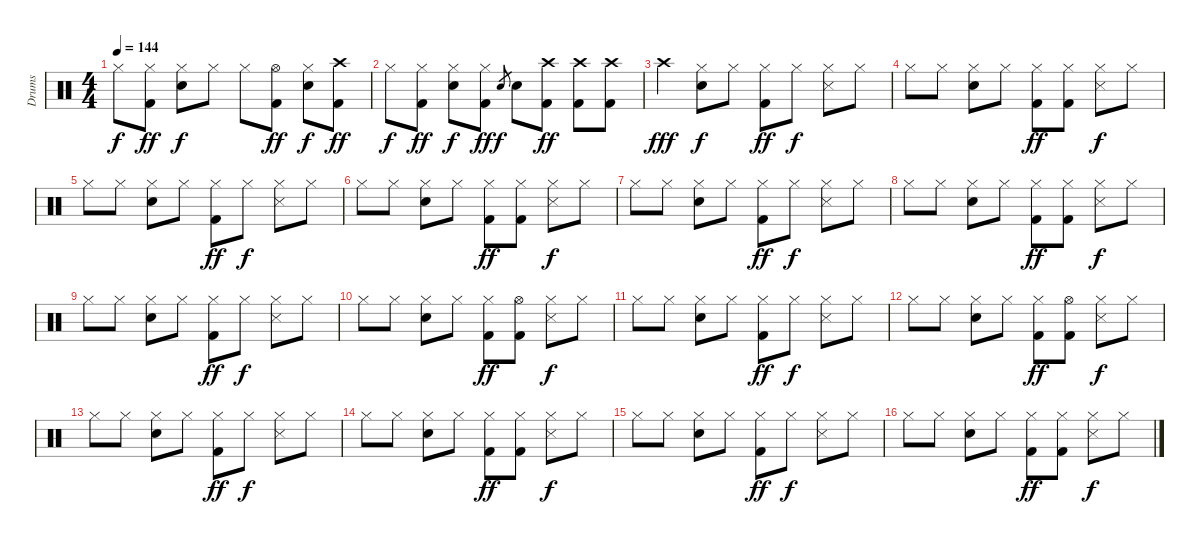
\track ("Drums" "Drums") {instrument percussion}
\staff {score}
\articulation defaults
\ts (4 4)
\tempo 144
\clef neutral
\ks c "Hi-Hat (closed)".8{dy f}
("Hi-Hat (closed)" "Kick (hit) 2").8{dy ff} ("Hi-Hat (closed)" "Snare (hit) 2").8{dy f} "Hi-Hat (closed)".8 "Hi-Hat (closed)".8 ("Hi-Hat (open)" "Kick (hit) 2").8{dy ff} ("Hi-Hat (closed)" "Snare (hit) 2").8{dy f} ("Crash high (hit)" "Kick (hit) 2").8{dy ff} |
"Hi-Hat (closed)".8{dy f} ("Hi-Hat (closed)" "Kick (hit) 2").8{dy ff} ("Hi-Hat (closed)" "Snare (hit) 2").8{dy f} ("Hi-Hat (closed)" "Kick (hit) 2").8{dy ff} "Snare (hit) 2".8{gr dy f} "Snare (hit) 2".8 ("Crash high (hit)" "Kick (hit) 2").8{dy ff} ("Crash high (hit)" "Kick (hit) 2").8 ("Crash high (hit)" "Kick (hit) 2").8 |
"Crash high (hit)".4{dy fff} ("Hi-Hat (closed)" "Snare (hit) 2").8{dy f} "Hi-Hat (closed)".8 ("Hi-Hat (closed)" "Kick (hit) 2").8{dy ff} "Hi-Hat (closed)".8{dy f} ("Hi-Hat (closed)" "Snare (side stick) 3").8 "Hi-Hat (closed)".8 |
"Hi-Hat (closed)".8 "Hi-Hat (closed)".8 ("Hi-Hat (closed)" "Snare (hit) 2").8 "Hi-Hat (closed)".8 ("Hi-Hat (closed)" "Kick (hit) 2").8{dy ff} ("Hi-Hat (closed)" "Kick (hit) 2").8 ("Hi-Hat (closed)" "Snare (side stick) 3").8{dy f} "Hi-Hat (closed)".8 |
"Hi-Hat (closed)".8 "Hi-Hat (closed)".8 ("Hi-Hat (closed)" "Snare (hit) 2").8 "Hi-Hat (closed)".8 ("Hi-Hat (closed)" "Kick (hit) 2").8{dy ff} "Hi-Hat (closed)".8{dy f} ("Hi-Hat (closed)" "Snare (side stick) 3").8 "Hi-Hat (closed)".8 |
"Hi-Hat (closed)".8 "Hi-Hat (closed)".8 ("Hi-Hat (closed)" "Snare (hit) 2").8 "Hi-Hat (closed)".8 ("Hi-Hat (closed)" "Kick (hit) 2").8{dy ff} ("Hi-Hat (closed)" "Kick (hit) 2").8 ("Hi-Hat (closed)" "Snare (side stick) 3").8{dy f} "Hi-Hat (closed)".8 |
"Hi-Hat (closed)".8 "Hi-Hat (closed)".8 ("Hi-Hat (closed)" "Snare (hit) 2").8 "Hi-Hat (closed)".8 ("Hi-Hat (closed)" "Kick (hit) 2").8{dy ff} "Hi-Hat (closed)".8{dy f} ("Hi-Hat (closed)" "Snare (side stick) 3").8 "Hi-Hat (closed)".8 |
"Hi-Hat (closed)".8 "Hi-Hat (closed)".8 ("Hi-Hat (closed)" "Snare (hit) 2").8 "Hi-Hat (closed)".8 ("Hi-Hat (closed)" "Kick (hit) 2").8{dy ff} ("Hi-Hat (closed)" "Kick (hit) 2").8 ("Hi-Hat (closed)" "Snare (side stick) 3").8{dy f} "Hi-Hat (closed)".8 |
"Hi-Hat (closed)".8 "Hi-Hat (closed)".8 ("Hi-Hat (closed)" "Snare (hit) 2").8 "Hi-Hat (closed)".8 ("Hi-Hat (closed)" "Kick (hit) 2").8{dy ff} "Hi-Hat (closed)".8{dy f} ("Hi-Hat (closed)" "Snare (side stick) 3").8 "Hi-Hat (closed)".8 |
"Hi-Hat (closed)".8 "Hi-Hat (closed)".8 ("Hi-Hat (closed)" "Snare (hit) 2").8 "Hi-Hat (closed)".8 ("Hi-Hat (closed)" "Kick (hit) 2").8{dy ff} ("Hi-Hat (open)" "Kick (hit) 2").8 ("Hi-Hat (closed)" "Snare (side stick) 3").8{dy f} "Hi-Hat (closed)".8 |
"Hi-Hat (closed)".8 "Hi-Hat (closed)".8 ("Hi-Hat (closed)" "Snare (hit) 2").8 "Hi-Hat (closed)".8 ("Hi-Hat (closed)" "Kick (hit) 2").8{dy ff} "Hi-Hat (closed)".8{dy f} ("Hi-Hat (closed)" "Snare (side stick) 3").8 "Hi-Hat (closed)".8 |
"Hi-Hat (closed)".8 "Hi-Hat (closed)".8 ("Hi-Hat (closed)" "Snare (hit) 2").8 "Hi-Hat (closed)".8 ("Hi-Hat (closed)" "Kick (hit) 2").8{dy ff} ("Hi-Hat (open)" "Kick (hit) 2").8 ("Hi-Hat (closed)" "Snare (side stick) 3").8{dy f} "Hi-Hat (closed)".8 |
"Hi-Hat (closed)".8 "Hi-Hat (closed)".8 ("Hi-Hat (closed)" "Snare (hit) 2").8 "Hi-Hat (closed)".8 ("Hi-Hat (closed)" "Kick (hit) 2").8{dy ff} "Hi-Hat (closed)".8{dy f} ("Hi-Hat (closed)" "Snare (side stick) 3").8 "Hi-Hat (closed)".8 |
"Hi-Hat (closed)".8 "Hi-Hat (closed)".8 ("Hi-Hat (closed)" "Snare (hit) 2").8 "Hi-Hat (closed)".8 ("Hi-Hat (closed)" "Kick (hit) 2").8{dy ff} ("Hi-Hat (closed)" "Kick (hit) 2").8 ("Hi-Hat (closed)" "Snare (side stick) 3").8{dy f} "Hi-Hat (closed)".8 |
"Hi-Hat (closed)".8 "Hi-Hat (closed)".8 ("Hi-Hat (closed)" "Snare (hit) 2").8 "Hi-Hat (closed)".8 ("Hi-Hat (closed)" "Kick (hit) 2").8{dy ff} "Hi-Hat (closed)".8{dy f} ("Hi-Hat (closed)" "Snare (side stick) 3").8 "Hi-Hat (closed)".8 |
"Hi-Hat (closed)".8 "Hi-Hat (closed)".8 ("Hi-Hat (closed)" "Snare (hit) 2").8 "Hi-Hat (closed)".8 ("Hi-Hat (closed)" "Kick (hit) 2").8{dy ff} ("Hi-Hat (closed)" "Kick (hit) 2").8 ("Hi-Hat (closed)" "Snare (side stick) 3").8{dy f} "Hi-Hat (closed)".8
